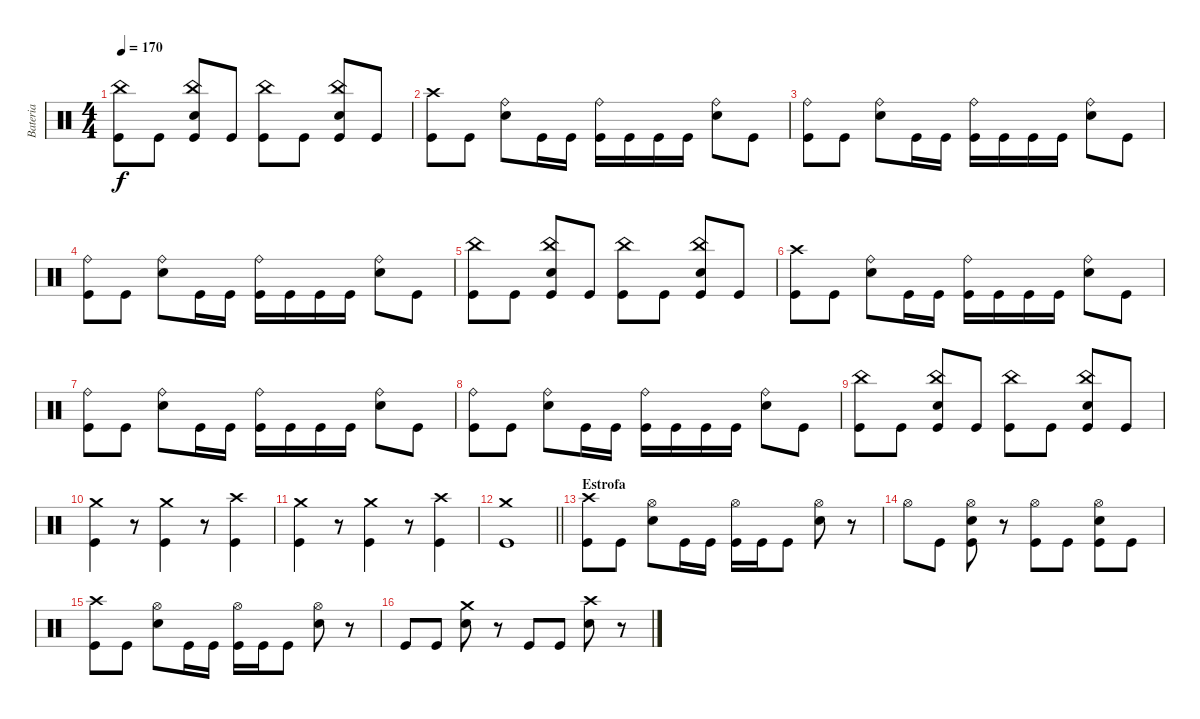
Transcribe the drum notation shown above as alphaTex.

\track ("Bateria" "Bateria") {instrument percussion}
\staff {score}
\articulation defaults
\ts (4 4)
\tempo 170
\clef neutral
\ks c
("Kick (hit)" "China (hit)").8{dy f} "Kick (hit)".8 ("Snare (hit) 2" "Kick (hit)" "China (hit)").8 "Kick (hit)".8 ("Kick (hit)" "China (hit)").8 "Kick (hit)".8 ("Snare (hit) 2" "Kick (hit)" "China (hit)").8 "Kick (hit)".8 |
("Kick (hit)" "Crash high (hit)").8 "Kick (hit)".8 ("Snare (hit) 2" "Ride (bell)").8 "Kick (hit)".16 "Kick (hit)".16 ("Kick (hit)" "Ride (bell)").16 "Kick (hit)".16 "Kick (hit)".16 "Kick (hit)".16 ("Snare (hit) 2" "Ride (bell)").8 "Kick (hit)".8 |
("Kick (hit)" "Ride (bell)").8 "Kick (hit)".8 ("Snare (hit) 2" "Ride (bell)").8 "Kick (hit)".16 "Kick (hit)".16 ("Kick (hit)" "Ride (bell)").16 "Kick (hit)".16 "Kick (hit)".16 "Kick (hit)".16 ("Snare (hit) 2" "Ride (bell)").8 "Kick (hit)".8 |
("Kick (hit)" "Ride (bell)").8 "Kick (hit)".8 ("Snare (hit) 2" "Ride (bell)").8 "Kick (hit)".16 "Kick (hit)".16 ("Kick (hit)" "Ride (bell)").16 "Kick (hit)".16 "Kick (hit)".16 "Kick (hit)".16 ("Snare (hit) 2" "Ride (bell)").8 "Kick (hit)".8 |
("Kick (hit)" "China (hit)").8 "Kick (hit)".8 ("Snare (hit) 2" "Kick (hit)" "China (hit)").8 "Kick (hit)".8 ("Kick (hit)" "China (hit)").8 "Kick (hit)".8 ("Snare (hit) 2" "Kick (hit)" "China (hit)").8 "Kick (hit)".8 |
("Kick (hit)" "Crash high (hit)").8 "Kick (hit)".8 ("Snare (hit) 2" "Ride (bell)").8 "Kick (hit)".16 "Kick (hit)".16 ("Kick (hit)" "Ride (bell)").16 "Kick (hit)".16 "Kick (hit)".16 "Kick (hit)".16 ("Snare (hit) 2" "Ride (bell)").8 "Kick (hit)".8 |
("Kick (hit)" "Ride (bell)").8 "Kick (hit)".8 ("Snare (hit) 2" "Ride (bell)").8 "Kick (hit)".16 "Kick (hit)".16 ("Kick (hit)" "Ride (bell)").16 "Kick (hit)".16 "Kick (hit)".16 "Kick (hit)".16 ("Snare (hit) 2" "Ride (bell)").8 "Kick (hit)".8 |
("Kick (hit)" "Ride (bell)").8 "Kick (hit)".8 ("Snare (hit) 2" "Ride (bell)").8 "Kick (hit)".16 "Kick (hit)".16 ("Kick (hit)" "Ride (bell)").16 "Kick (hit)".16 "Kick (hit)".16 "Kick (hit)".16 ("Snare (hit) 2" "Ride (bell)").8 "Kick (hit)".8 |
("Kick (hit)" "China (hit)").8 "Kick (hit)".8 ("Snare (hit) 2" "Kick (hit)" "China (hit)").8 "Kick (hit)".8 ("Kick (hit)" "China (hit)").8 "Kick (hit)".8 ("Snare (hit) 2" "Kick (hit)" "China (hit)").8 "Kick (hit)".8 |
("Kick (hit)" "Crash medium (hit)").4 r.8 ("Kick (hit)" "Crash medium (hit)").4 r.8 ("Kick (hit)" "Crash high (hit)").4 |
("Kick (hit)" "Crash medium (hit)").4 r.8 ("Kick (hit)" "Crash medium (hit)").4 r.8 ("Kick (hit)" "Crash high (hit)").4 |
\barLineRight lightlight
("Kick (hit)" "Crash medium (hit)").1 |
\section ("" "Estrofa")
("Kick (hit)" "Crash high (hit)").8 "Kick (hit)".8 ("Snare (hit) 2" "Hi-Hat (open)").8 "Kick (hit)".16 "Kick (hit)".16 ("Kick (hit)" "Hi-Hat (open)").16 "Kick (hit)".16 "Kick (hit)".8 ("Snare (hit) 2" "Hi-Hat (open)").8 r.8 |
"Hi-Hat (open)".8 "Kick (hit)".8 ("Snare (hit) 2" "Kick (hit)" "Hi-Hat (open)").8 r.8 ("Kick (hit)" "Hi-Hat (open)").8 "Kick (hit)".8 ("Snare (hit) 2" "Kick (hit)" "Hi-Hat (open)").8 "Kick (hit)".8 |
("Kick (hit)" "Crash high (hit)").8 "Kick (hit)".8 ("Snare (hit) 2" "Hi-Hat (open)").8 "Kick (hit)".16 "Kick (hit)".16 ("Kick (hit)" "Hi-Hat (open)").16 "Kick (hit)".16 "Kick (hit)".8 ("Snare (hit) 2" "Hi-Hat (open)").8 r.8 |
"Kick (hit)".8 "Kick (hit)".8 ("Snare (hit) 2" "Crash medium (hit)").8 r.8 "Kick (hit)".8 "Kick (hit)".8 ("Snare (hit) 2" "Crash high (hit)").8 r.8
